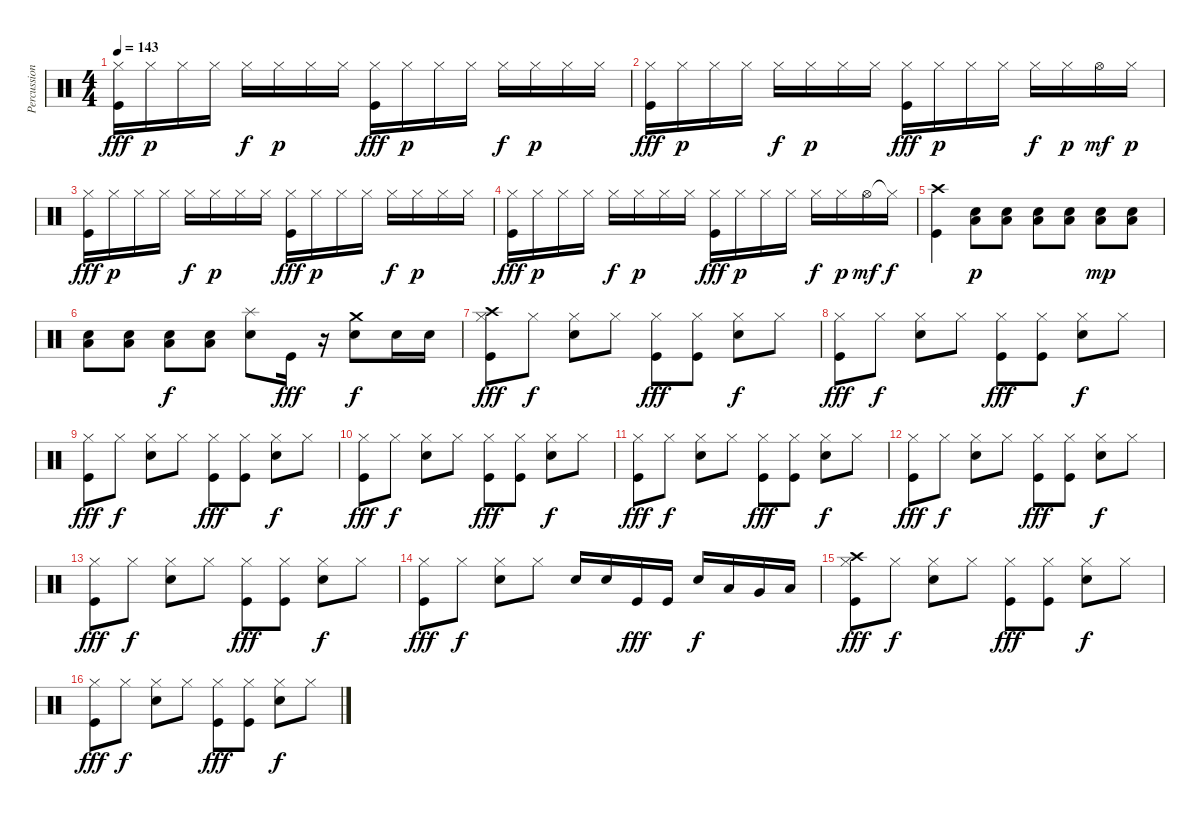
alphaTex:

\track ("Percussion" "Percussion") {instrument percussion}
\staff {score}
\articulation defaults
\ts (4 4)
\tempo 143
\clef neutral
\ks c
("Kick (hit)" "Hi-Hat (closed)").16{dy fff} "Hi-Hat (closed)".16{dy p} "Hi-Hat (closed)".16 "Hi-Hat (closed)".16 "Hi-Hat (closed)".16{dy f} "Hi-Hat (closed)".16{dy p} "Hi-Hat (closed)".16 "Hi-Hat (closed)".16 ("Kick (hit)" "Hi-Hat (closed)").16{dy fff} "Hi-Hat (closed)".16{dy p} "Hi-Hat (closed)".16 "Hi-Hat (closed)".16 "Hi-Hat (closed)".16{dy f} "Hi-Hat (closed)".16{dy p} "Hi-Hat (closed)".16 "Hi-Hat (closed)".16 |
("Kick (hit)" "Hi-Hat (closed)").16{dy fff} "Hi-Hat (closed)".16{dy p} "Hi-Hat (closed)".16 "Hi-Hat (closed)".16 "Hi-Hat (closed)".16{dy f} "Hi-Hat (closed)".16{dy p} "Hi-Hat (closed)".16 "Hi-Hat (closed)".16 ("Kick (hit)" "Hi-Hat (closed)").16{dy fff} "Hi-Hat (closed)".16{dy p} "Hi-Hat (closed)".16 "Hi-Hat (closed)".16 "Hi-Hat (closed)".16{dy f} "Hi-Hat (closed)".16{dy p} "Hi-Hat (open)".16{dy mf} "Hi-Hat (closed)".16{dy p} |
("Kick (hit)" "Hi-Hat (closed)").16{dy fff} "Hi-Hat (closed)".16{dy p} "Hi-Hat (closed)".16 "Hi-Hat (closed)".16 "Hi-Hat (closed)".16{dy f} "Hi-Hat (closed)".16{dy p} "Hi-Hat (closed)".16 "Hi-Hat (closed)".16 ("Kick (hit)" "Hi-Hat (closed)").16{dy fff} "Hi-Hat (closed)".16{dy p} "Hi-Hat (closed)".16 "Hi-Hat (closed)".16 "Hi-Hat (closed)".16{dy f} "Hi-Hat (closed)".16{dy p} "Hi-Hat (closed)".16 "Hi-Hat (closed)".16 |
("Kick (hit)" "Hi-Hat (closed)").16{dy fff} "Hi-Hat (closed)".16{dy p} "Hi-Hat (closed)".16 "Hi-Hat (closed)".16 "Hi-Hat (closed)".16{dy f} "Hi-Hat (closed)".16{dy p} "Hi-Hat (closed)".16 "Hi-Hat (closed)".16 ("Kick (hit)" "Hi-Hat (closed)").16{dy fff} "Hi-Hat (closed)".16{dy p} "Hi-Hat (closed)".16 "Hi-Hat (closed)".16 "Hi-Hat (closed)".16{dy f} "Hi-Hat (closed)".16{dy p} "Hi-Hat (open)".16{dy mf} "Hi-Hat (closed)"{t}.16{dy f} |
("Crash high (hit)" "Kick (hit)").4 ("Electric Snare (hit)" "Low Floor Tom (hit)").8{dy p} ("Electric Snare (hit)" "Low Floor Tom (hit)").8 ("Electric Snare (hit)" "Low Floor Tom (hit)").8 ("Electric Snare (hit)" "Low Floor Tom (hit)").8 ("Electric Snare (hit)" "Low Floor Tom (hit)").8{dy mp} ("Electric Snare (hit)" "Low Floor Tom (hit)").8 |
("Electric Snare (hit)" "Low Floor Tom (hit)").8 ("Electric Snare (hit)" "Low Floor Tom (hit)").8 ("Electric Snare (hit)" "Low Floor Tom (hit)").8{dy f} ("Electric Snare (hit)" "Low Floor Tom (hit)").8 ("Splash (hit)" "Electric Snare (hit)").8 "Kick (hit)".16{dy fff} r.16 ("Crash medium (hit)" "Electric Snare (hit)").8{dy f} "Electric Snare (hit)".16 "Electric Snare (hit)".16 |
("Crash high (hit)" "Kick (hit)" "Hi-Hat (closed)").8{dy fff} "Hi-Hat (closed)".8{dy f} ("Electric Snare (hit)" "Hi-Hat (closed)").8 "Hi-Hat (closed)".8 ("Kick (hit)" "Hi-Hat (closed)").8{dy fff} ("Kick (hit)" "Hi-Hat (closed)").8 ("Electric Snare (hit)" "Hi-Hat (closed)").8{dy f} "Hi-Hat (closed)".8 |
("Kick (hit)" "Hi-Hat (closed)").8{dy fff} "Hi-Hat (closed)".8{dy f} ("Electric Snare (hit)" "Hi-Hat (closed)").8 "Hi-Hat (closed)".8 ("Kick (hit)" "Hi-Hat (closed)").8{dy fff} ("Kick (hit)" "Hi-Hat (closed)").8 ("Electric Snare (hit)" "Hi-Hat (closed)").8{dy f} "Hi-Hat (closed)".8 |
("Kick (hit)" "Hi-Hat (closed)").8{dy fff} "Hi-Hat (closed)".8{dy f} ("Electric Snare (hit)" "Hi-Hat (closed)").8 "Hi-Hat (closed)".8 ("Kick (hit)" "Hi-Hat (closed)").8{dy fff} ("Kick (hit)" "Hi-Hat (closed)").8 ("Electric Snare (hit)" "Hi-Hat (closed)").8{dy f} "Hi-Hat (closed)".8 |
("Kick (hit)" "Hi-Hat (closed)").8{dy fff} "Hi-Hat (closed)".8{dy f} ("Electric Snare (hit)" "Hi-Hat (closed)").8 "Hi-Hat (closed)".8 ("Kick (hit)" "Hi-Hat (closed)").8{dy fff} ("Kick (hit)" "Hi-Hat (closed)").8 ("Electric Snare (hit)" "Hi-Hat (closed)").8{dy f} "Hi-Hat (closed)".8 |
("Kick (hit)" "Hi-Hat (closed)").8{dy fff} "Hi-Hat (closed)".8{dy f} ("Electric Snare (hit)" "Hi-Hat (closed)").8 "Hi-Hat (closed)".8 ("Kick (hit)" "Hi-Hat (closed)").8{dy fff} ("Kick (hit)" "Hi-Hat (closed)").8 ("Electric Snare (hit)" "Hi-Hat (closed)").8{dy f} "Hi-Hat (closed)".8 |
("Kick (hit)" "Hi-Hat (closed)").8{dy fff} "Hi-Hat (closed)".8{dy f} ("Electric Snare (hit)" "Hi-Hat (closed)").8 "Hi-Hat (closed)".8 ("Kick (hit)" "Hi-Hat (closed)").8{dy fff} ("Kick (hit)" "Hi-Hat (closed)").8 ("Electric Snare (hit)" "Hi-Hat (closed)").8{dy f} "Hi-Hat (closed)".8 |
("Kick (hit)" "Hi-Hat (closed)").8{dy fff} "Hi-Hat (closed)".8{dy f} ("Electric Snare (hit)" "Hi-Hat (closed)").8 "Hi-Hat (closed)".8 ("Kick (hit)" "Hi-Hat (closed)").8{dy fff} ("Kick (hit)" "Hi-Hat (closed)").8 ("Electric Snare (hit)" "Hi-Hat (closed)").8{dy f} "Hi-Hat (closed)".8 |
("Kick (hit)" "Hi-Hat (closed)").8{dy fff} "Hi-Hat (closed)".8{dy f} ("Electric Snare (hit)" "Hi-Hat (closed)").8 "Hi-Hat (closed)".8 "Electric Snare (hit)".16 "Electric Snare (hit)".16 "Kick (hit)".16{dy fff} "Kick (hit)".16 "Electric Snare (hit)".16{dy f} "Low Tom (hit)".16 "Very Low Tom (hit)".16 "Low Floor Tom (hit)".16 |
("Crash high (hit)" "Kick (hit)" "Hi-Hat (closed)").8{dy fff} "Hi-Hat (closed)".8{dy f} ("Electric Snare (hit)" "Hi-Hat (closed)").8 "Hi-Hat (closed)".8 ("Kick (hit)" "Hi-Hat (closed)").8{dy fff} ("Kick (hit)" "Hi-Hat (closed)").8 ("Electric Snare (hit)" "Hi-Hat (closed)").8{dy f} "Hi-Hat (closed)".8 |
("Kick (hit)" "Hi-Hat (closed)").8{dy fff} "Hi-Hat (closed)".8{dy f} ("Electric Snare (hit)" "Hi-Hat (closed)").8 "Hi-Hat (closed)".8 ("Kick (hit)" "Hi-Hat (closed)").8{dy fff} ("Kick (hit)" "Hi-Hat (closed)").8 ("Electric Snare (hit)" "Hi-Hat (closed)").8{dy f} "Hi-Hat (closed)".8
